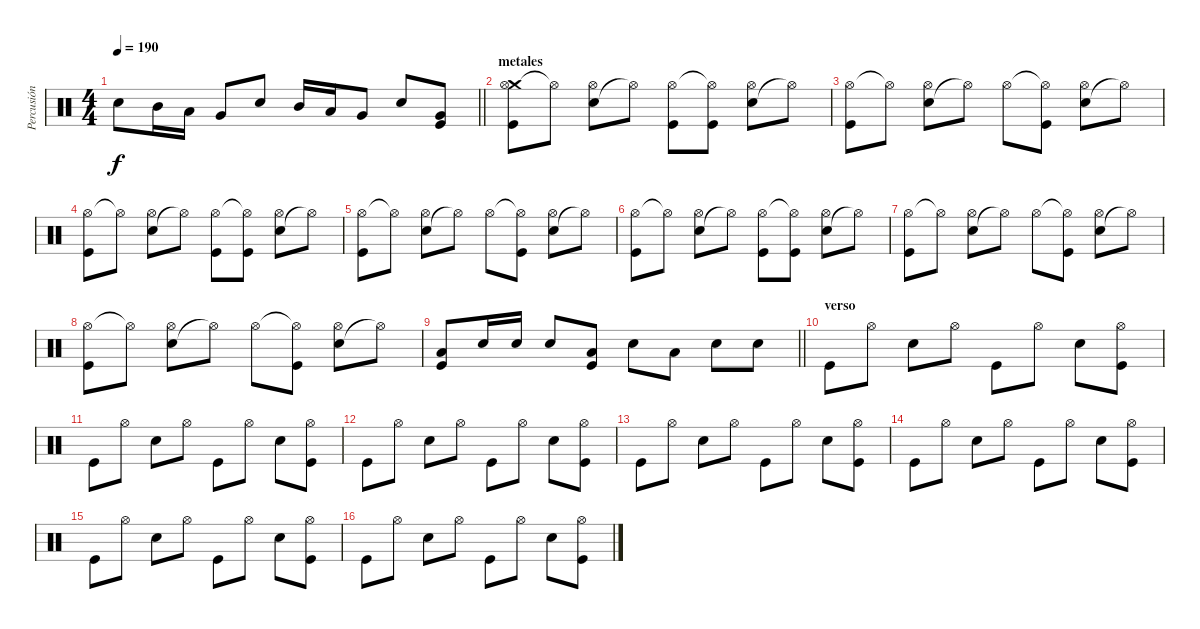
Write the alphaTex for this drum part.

\track ("Percusión" "Percusión") {instrument percussion}
\staff {score}
\articulation defaults
\ts (4 4)
\tempo 190
\clef neutral
\barLineRight lightlight
\ks c "Electric Snare (hit)".8{dy f volume 10} "Mid Tom (hit)".16 "Low Tom (hit)".16 "Very Low Tom (hit)".8 "Electric Snare (hit)".8 "Mid Tom (hit)".16 "Low Tom (hit)".16 "Very Low Tom (hit)".8 "Electric Snare (hit)".8
("Very Low Tom (hit)" "Kick (hit)").8 |
\section ("" "metales")
("Crash medium (hit)" "Hi-Hat (open)" "Kick (hit)").8 "Hi-Hat (open)"{t}.8 ("Electric Snare (hit)" "Hi-Hat (open)").8 "Hi-Hat (open)"{t}.8 ("Hi-Hat (open)" "Kick (hit)").8 ("Hi-Hat (open)"{t} "Kick (hit)").8 ("Electric Snare (hit)" "Hi-Hat (open)").8 "Hi-Hat (open)"{t}.8 |
("Hi-Hat (open)" "Kick (hit)").8 "Hi-Hat (open)"{t}.8 ("Electric Snare (hit)" "Hi-Hat (open)").8 "Hi-Hat (open)"{t}.8 "Hi-Hat (open)".8 ("Hi-Hat (open)"{t} "Kick (hit)").8 ("Electric Snare (hit)" "Hi-Hat (open)").8 "Hi-Hat (open)"{t}.8 |
("Hi-Hat (open)" "Kick (hit)").8 "Hi-Hat (open)"{t}.8 ("Electric Snare (hit)" "Hi-Hat (open)").8 "Hi-Hat (open)"{t}.8 ("Hi-Hat (open)" "Kick (hit)").8 ("Hi-Hat (open)"{t} "Kick (hit)").8 ("Electric Snare (hit)" "Hi-Hat (open)").8 "Hi-Hat (open)"{t}.8 |
("Hi-Hat (open)" "Kick (hit)").8 "Hi-Hat (open)"{t}.8 ("Electric Snare (hit)" "Hi-Hat (open)").8 "Hi-Hat (open)"{t}.8 "Hi-Hat (open)".8 ("Hi-Hat (open)"{t} "Kick (hit)").8 ("Electric Snare (hit)" "Hi-Hat (open)").8 "Hi-Hat (open)"{t}.8 |
("Hi-Hat (open)" "Kick (hit)").8 "Hi-Hat (open)"{t}.8 ("Electric Snare (hit)" "Hi-Hat (open)").8 "Hi-Hat (open)"{t}.8 ("Hi-Hat (open)" "Kick (hit)").8 ("Hi-Hat (open)"{t} "Kick (hit)").8 ("Electric Snare (hit)" "Hi-Hat (open)").8 "Hi-Hat (open)"{t}.8 |
("Hi-Hat (open)" "Kick (hit)").8 "Hi-Hat (open)"{t}.8 ("Electric Snare (hit)" "Hi-Hat (open)").8 "Hi-Hat (open)"{t}.8 "Hi-Hat (open)".8 ("Hi-Hat (open)"{t} "Kick (hit)").8 ("Electric Snare (hit)" "Hi-Hat (open)").8 "Hi-Hat (open)"{t}.8 |
("Hi-Hat (open)" "Kick (hit)").8 "Hi-Hat (open)"{t}.8 ("Electric Snare (hit)" "Hi-Hat (open)").8 "Hi-Hat (open)"{t}.8 "Hi-Hat (open)".8 ("Hi-Hat (open)"{t} "Kick (hit)").8 ("Electric Snare (hit)" "Hi-Hat (open)").8 "Hi-Hat (open)"{t}.8 |
\barLineRight lightlight
("Low Tom (hit)" "Kick (hit)").8 "Electric Snare (hit)".16 "Electric Snare (hit)".16 "Electric Snare (hit)".8 ("Low Tom (hit)" "Kick (hit)").8 "Electric Snare (hit)".8 "Low Tom (hit)".8 "Electric Snare (hit)".8 "Electric Snare (hit)".8 |
\section ("" "verso")
"Kick (hit)".8 "Hi-Hat (open)".8 "Electric Snare (hit)".8 "Hi-Hat (open)".8 "Kick (hit)".8 "Hi-Hat (open)".8 "Electric Snare (hit)".8 ("Hi-Hat (open)" "Kick (hit)").8 |
"Kick (hit)".8 "Hi-Hat (open)".8 "Electric Snare (hit)".8 "Hi-Hat (open)".8 "Kick (hit)".8 "Hi-Hat (open)".8 "Electric Snare (hit)".8 ("Hi-Hat (open)" "Kick (hit)").8 |
"Kick (hit)".8 "Hi-Hat (open)".8 "Electric Snare (hit)".8 "Hi-Hat (open)".8 "Kick (hit)".8 "Hi-Hat (open)".8 "Electric Snare (hit)".8 ("Hi-Hat (open)" "Kick (hit)").8 |
"Kick (hit)".8 "Hi-Hat (open)".8 "Electric Snare (hit)".8 "Hi-Hat (open)".8 "Kick (hit)".8 "Hi-Hat (open)".8 "Electric Snare (hit)".8 ("Hi-Hat (open)" "Kick (hit)").8 |
"Kick (hit)".8 "Hi-Hat (open)".8 "Electric Snare (hit)".8 "Hi-Hat (open)".8 "Kick (hit)".8 "Hi-Hat (open)".8 "Electric Snare (hit)".8 ("Hi-Hat (open)" "Kick (hit)").8 |
"Kick (hit)".8 "Hi-Hat (open)".8 "Electric Snare (hit)".8 "Hi-Hat (open)".8 "Kick (hit)".8 "Hi-Hat (open)".8 "Electric Snare (hit)".8 ("Hi-Hat (open)" "Kick (hit)").8 |
"Kick (hit)".8 "Hi-Hat (open)".8 "Electric Snare (hit)".8 "Hi-Hat (open)".8 "Kick (hit)".8 "Hi-Hat (open)".8 "Electric Snare (hit)".8 ("Hi-Hat (open)" "Kick (hit)").8
